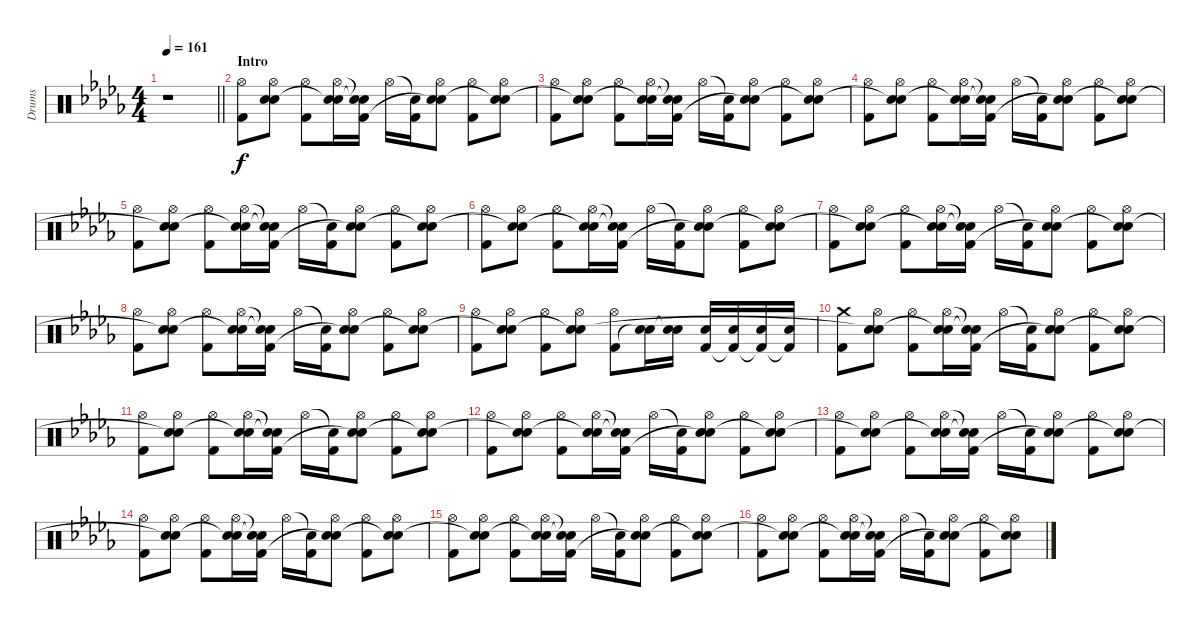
\track ("Drums" "Drums") {instrument percussion}
\staff {score}
\articulation defaults
\ts (4 4)
\tempo 161
\clef neutral
\barLineRight lightlight
\ks bbminor
r.1{dy f} |
\section ("" "Intro")
("Hi-Hat (open)" "Kick (hit) 2").8 ("Hi-Hat (open)" "Electric Snare (hit)" "Snare (hit)").8 ("Hi-Hat (open)" "Kick (hit) 2").8 ("Hi-Hat (open)" "Electric Snare (hit)" "Snare (hit)"{t}).16 ("Snare (hit)"{t} "Snare (hit)"{t} "Kick (hit) 2").16 "Hi-Hat (open)".16 ("Snare (hit)"{t} "Kick (hit) 2").16 ("Hi-Hat (open)" "Electric Snare (hit)" "Snare (hit)"{t}).8 ("Hi-Hat (open)" "Kick (hit) 2").8 ("Hi-Hat (open)" "Electric Snare (hit)" "Snare (hit)"{t}).8 |
("Hi-Hat (open)" "Kick (hit) 2").8 ("Hi-Hat (open)" "Electric Snare (hit)" "Snare (hit)"{t}).8 ("Hi-Hat (open)" "Kick (hit) 2").8 ("Hi-Hat (open)" "Electric Snare (hit)" "Snare (hit)"{t}).16 ("Snare (hit)"{t} "Snare (hit)"{t} "Kick (hit) 2").16 "Hi-Hat (open)".16 ("Snare (hit)"{t} "Kick (hit) 2").16 ("Hi-Hat (open)" "Electric Snare (hit)" "Snare (hit)"{t}).8 ("Hi-Hat (open)" "Kick (hit) 2").8 ("Hi-Hat (open)" "Electric Snare (hit)" "Snare (hit)"{t}).8 |
("Hi-Hat (open)" "Kick (hit) 2").8 ("Hi-Hat (open)" "Electric Snare (hit)" "Snare (hit)"{t}).8 ("Hi-Hat (open)" "Kick (hit) 2").8 ("Hi-Hat (open)" "Electric Snare (hit)" "Snare (hit)"{t}).16 ("Snare (hit)"{t} "Snare (hit)"{t} "Kick (hit) 2").16 "Hi-Hat (open)".16 ("Snare (hit)"{t} "Kick (hit) 2").16 ("Hi-Hat (open)" "Electric Snare (hit)" "Snare (hit)"{t}).8 ("Hi-Hat (open)" "Kick (hit) 2").8 ("Hi-Hat (open)" "Electric Snare (hit)" "Snare (hit)"{t}).8 |
("Hi-Hat (open)" "Kick (hit) 2").8 ("Hi-Hat (open)" "Electric Snare (hit)" "Snare (hit)"{t}).8 ("Hi-Hat (open)" "Kick (hit) 2").8 ("Hi-Hat (open)" "Electric Snare (hit)" "Snare (hit)"{t}).16 ("Snare (hit)"{t} "Snare (hit)"{t} "Kick (hit) 2").16 "Hi-Hat (open)".16 ("Snare (hit)"{t} "Kick (hit) 2").16 ("Hi-Hat (open)" "Electric Snare (hit)" "Snare (hit)"{t}).8 ("Hi-Hat (open)" "Kick (hit) 2").8 ("Hi-Hat (open)" "Electric Snare (hit)" "Snare (hit)"{t}).8 |
("Hi-Hat (open)" "Kick (hit) 2").8 ("Hi-Hat (open)" "Electric Snare (hit)" "Snare (hit)"{t}).8 ("Hi-Hat (open)" "Kick (hit) 2").8 ("Hi-Hat (open)" "Electric Snare (hit)" "Snare (hit)"{t}).16 ("Snare (hit)"{t} "Snare (hit)"{t} "Kick (hit) 2").16 "Hi-Hat (open)".16 ("Snare (hit)"{t} "Kick (hit) 2").16 ("Hi-Hat (open)" "Electric Snare (hit)" "Snare (hit)"{t}).8 ("Hi-Hat (open)" "Kick (hit) 2").8 ("Hi-Hat (open)" "Electric Snare (hit)" "Snare (hit)"{t}).8 |
("Hi-Hat (open)" "Kick (hit) 2").8 ("Hi-Hat (open)" "Electric Snare (hit)" "Snare (hit)"{t}).8 ("Hi-Hat (open)" "Kick (hit) 2").8 ("Hi-Hat (open)" "Electric Snare (hit)" "Snare (hit)"{t}).16 ("Snare (hit)"{t} "Snare (hit)"{t} "Kick (hit) 2").16 "Hi-Hat (open)".16 ("Snare (hit)"{t} "Kick (hit) 2").16 ("Hi-Hat (open)" "Electric Snare (hit)" "Snare (hit)"{t}).8 ("Hi-Hat (open)" "Kick (hit) 2").8 ("Hi-Hat (open)" "Electric Snare (hit)" "Snare (hit)"{t}).8 |
("Hi-Hat (open)" "Kick (hit) 2").8 ("Hi-Hat (open)" "Electric Snare (hit)" "Snare (hit)"{t}).8 ("Hi-Hat (open)" "Kick (hit) 2").8 ("Hi-Hat (open)" "Electric Snare (hit)" "Snare (hit)"{t}).16 ("Snare (hit)"{t} "Snare (hit)"{t} "Kick (hit) 2").16 "Hi-Hat (open)".16 ("Snare (hit)"{t} "Kick (hit) 2").16 ("Hi-Hat (open)" "Electric Snare (hit)" "Snare (hit)"{t}).8 ("Hi-Hat (open)" "Kick (hit) 2").8 ("Hi-Hat (open)" "Electric Snare (hit)" "Snare (hit)"{t}).8 |
("Hi-Hat (open)" "Kick (hit) 2").8 ("Hi-Hat (open)" "Electric Snare (hit)" "Snare (hit)"{t}).8 ("Hi-Hat (open)" "Kick (hit) 2").8 ("Hi-Hat (open)" "Electric Snare (hit)" "Snare (hit)"{t}).8 ("Hi-Hat (open)" "Kick (hit) 2").8 ("Electric Snare (hit)" "Snare (hit)"{t}).16 ("Electric Snare (hit)" "Snare (hit)"{t}).16 ("Electric Snare (hit)" "Kick (hit) 2").16 ("Electric Snare (hit)" "Kick (hit) 2"{t}).16 ("Electric Snare (hit)" "Kick (hit) 2"{t}).16 ("Electric Snare (hit)" "Kick (hit) 2"{t}).16 |
("Crash medium (hit)" "Kick (hit) 2").8 ("Hi-Hat (open)" "Electric Snare (hit)" "Snare (hit)"{t}).8 ("Hi-Hat (open)" "Kick (hit) 2").8 ("Hi-Hat (open)" "Electric Snare (hit)" "Snare (hit)"{t}).16 ("Snare (hit)"{t} "Snare (hit)"{t} "Kick (hit) 2").16 "Hi-Hat (open)".16 ("Snare (hit)"{t} "Kick (hit) 2").16 ("Hi-Hat (open)" "Electric Snare (hit)" "Snare (hit)"{t}).8 ("Hi-Hat (open)" "Kick (hit) 2").8 ("Hi-Hat (open)" "Electric Snare (hit)" "Snare (hit)"{t}).8 |
("Hi-Hat (open)" "Kick (hit) 2").8 ("Hi-Hat (open)" "Electric Snare (hit)" "Snare (hit)"{t}).8 ("Hi-Hat (open)" "Kick (hit) 2").8 ("Hi-Hat (open)" "Electric Snare (hit)" "Snare (hit)"{t}).16 ("Snare (hit)"{t} "Snare (hit)"{t} "Kick (hit) 2").16 "Hi-Hat (open)".16 ("Snare (hit)"{t} "Kick (hit) 2").16 ("Hi-Hat (open)" "Electric Snare (hit)" "Snare (hit)"{t}).8 ("Hi-Hat (open)" "Kick (hit) 2").8 ("Hi-Hat (open)" "Electric Snare (hit)" "Snare (hit)"{t}).8 |
("Hi-Hat (open)" "Kick (hit) 2").8 ("Hi-Hat (open)" "Electric Snare (hit)" "Snare (hit)"{t}).8 ("Hi-Hat (open)" "Kick (hit) 2").8 ("Hi-Hat (open)" "Electric Snare (hit)" "Snare (hit)"{t}).16 ("Snare (hit)"{t} "Snare (hit)"{t} "Kick (hit) 2").16 "Hi-Hat (open)".16 ("Snare (hit)"{t} "Kick (hit) 2").16 ("Hi-Hat (open)" "Electric Snare (hit)" "Snare (hit)"{t}).8 ("Hi-Hat (open)" "Kick (hit) 2").8 ("Hi-Hat (open)" "Electric Snare (hit)" "Snare (hit)"{t}).8 |
("Hi-Hat (open)" "Kick (hit) 2").8 ("Hi-Hat (open)" "Electric Snare (hit)" "Snare (hit)"{t}).8 ("Hi-Hat (open)" "Kick (hit) 2").8 ("Hi-Hat (open)" "Electric Snare (hit)" "Snare (hit)"{t}).16 ("Snare (hit)"{t} "Snare (hit)"{t} "Kick (hit) 2").16 "Hi-Hat (open)".16 ("Snare (hit)"{t} "Kick (hit) 2").16 ("Hi-Hat (open)" "Electric Snare (hit)" "Snare (hit)"{t}).8 ("Hi-Hat (open)" "Kick (hit) 2").8 ("Hi-Hat (open)" "Electric Snare (hit)" "Snare (hit)"{t}).8 |
("Hi-Hat (open)" "Kick (hit) 2").8 ("Hi-Hat (open)" "Electric Snare (hit)" "Snare (hit)"{t}).8 ("Hi-Hat (open)" "Kick (hit) 2").8 ("Hi-Hat (open)" "Electric Snare (hit)" "Snare (hit)"{t}).16 ("Snare (hit)"{t} "Snare (hit)"{t} "Kick (hit) 2").16 "Hi-Hat (open)".16 ("Snare (hit)"{t} "Kick (hit) 2").16 ("Hi-Hat (open)" "Electric Snare (hit)" "Snare (hit)"{t}).8 ("Hi-Hat (open)" "Kick (hit) 2").8 ("Hi-Hat (open)" "Electric Snare (hit)" "Snare (hit)"{t}).8 |
("Hi-Hat (open)" "Kick (hit) 2").8 ("Hi-Hat (open)" "Electric Snare (hit)" "Snare (hit)"{t}).8 ("Hi-Hat (open)" "Kick (hit) 2").8 ("Hi-Hat (open)" "Electric Snare (hit)" "Snare (hit)"{t}).16 ("Snare (hit)"{t} "Snare (hit)"{t} "Kick (hit) 2").16 "Hi-Hat (open)".16 ("Snare (hit)"{t} "Kick (hit) 2").16 ("Hi-Hat (open)" "Electric Snare (hit)" "Snare (hit)"{t}).8 ("Hi-Hat (open)" "Kick (hit) 2").8 ("Hi-Hat (open)" "Electric Snare (hit)" "Snare (hit)"{t}).8 |
("Hi-Hat (open)" "Kick (hit) 2").8 ("Hi-Hat (open)" "Electric Snare (hit)" "Snare (hit)"{t}).8 ("Hi-Hat (open)" "Kick (hit) 2").8 ("Hi-Hat (open)" "Electric Snare (hit)" "Snare (hit)"{t}).16 ("Snare (hit)"{t} "Snare (hit)"{t} "Kick (hit) 2").16 "Hi-Hat (open)".16 ("Snare (hit)"{t} "Kick (hit) 2").16 ("Hi-Hat (open)" "Electric Snare (hit)" "Snare (hit)"{t}).8 ("Hi-Hat (open)" "Kick (hit) 2").8 ("Hi-Hat (open)" "Electric Snare (hit)" "Snare (hit)"{t}).8
